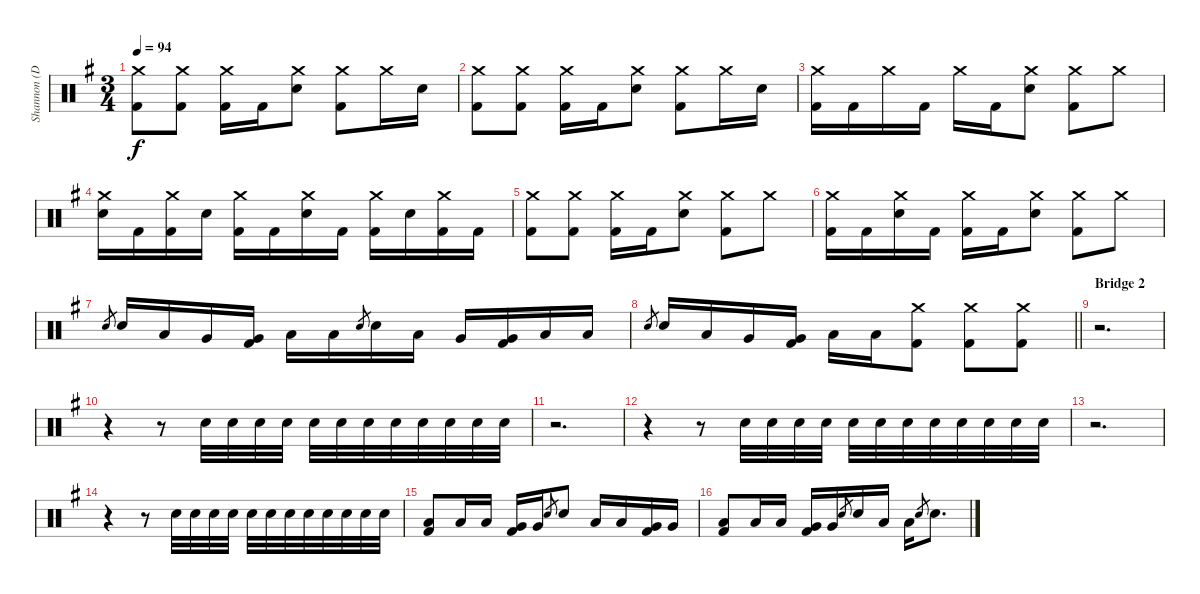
\track ("Shannon (Drums)" "Shannon (D") {instrument percussion}
\staff {score}
\articulation defaults
\ts (3 4)
\tempo 94
\clef neutral
\ks g
("Crash medium (hit)" "Kick (hit) 2").8{dy f} ("Crash medium (hit)" "Kick (hit) 2").8 ("Crash medium (hit)" "Kick (hit) 2").16 "Kick (hit) 2".16 ("Crash medium (hit)" "Electric Snare (hit)").8 ("Crash medium (hit)" "Kick (hit) 2").8 "Crash medium (hit)".16 "Electric Snare (hit)".16 |
("Crash medium (hit)" "Kick (hit) 2").8 ("Crash medium (hit)" "Kick (hit) 2").8 ("Crash medium (hit)" "Kick (hit) 2").16 "Kick (hit) 2".16 ("Crash medium (hit)" "Electric Snare (hit)").8 ("Crash medium (hit)" "Kick (hit) 2").8 "Crash medium (hit)".16 "Electric Snare (hit)".16 |
("Crash medium (hit)" "Kick (hit) 2").16 "Kick (hit) 2".16 "Crash medium (hit)".16 "Kick (hit) 2".16 "Crash medium (hit)".16 "Kick (hit) 2".16 ("Crash medium (hit)" "Electric Snare (hit)").8 ("Crash medium (hit)" "Kick (hit) 2").8 "Crash medium (hit)".8 |
("Crash medium (hit)" "Electric Snare (hit)").16 "Kick (hit) 2".16 ("Crash medium (hit)" "Kick (hit) 2").16 "Electric Snare (hit)".16 ("Crash medium (hit)" "Kick (hit) 2").16 "Kick (hit) 2".16 ("Crash medium (hit)" "Electric Snare (hit)").16 "Kick (hit) 2".16 ("Crash medium (hit)" "Kick (hit) 2").16 "Electric Snare (hit)".16 ("Crash medium (hit)" "Kick (hit) 2").16 "Kick (hit) 2".16 |
("Crash medium (hit)" "Kick (hit) 2").8 ("Crash medium (hit)" "Kick (hit) 2").8 ("Crash medium (hit)" "Kick (hit) 2").16 "Kick (hit) 2".16 ("Crash medium (hit)" "Electric Snare (hit)").8 ("Crash medium (hit)" "Kick (hit) 2").8 "Crash medium (hit)".8 |
("Crash medium (hit)" "Kick (hit) 2").16 "Kick (hit) 2".16 ("Crash medium (hit)" "Electric Snare (hit)").16 "Kick (hit) 2".16 ("Crash medium (hit)" "Kick (hit) 2").16 "Kick (hit) 2".16 ("Crash medium (hit)" "Electric Snare (hit)").8 ("Crash medium (hit)" "Kick (hit) 2").8 "Crash medium (hit)".8 |
"Electric Snare (hit)".8{gr} "Electric Snare (hit)".16 "Low Floor Tom (hit)".16 "Very Low Tom (hit)".16 ("Very Low Tom (hit)" "Kick (hit) 2").16 "Low Floor Tom (hit)".16 "Low Floor Tom (hit)".16 "Electric Snare (hit)".8{gr} "Electric Snare (hit)".16 "Low Floor Tom (hit)".16 "Very Low Tom (hit)".16 ("Very Low Tom (hit)" "Kick (hit) 2").16 "Low Floor Tom (hit)".16 "Low Floor Tom (hit)".16 |
\barLineRight lightlight "Electric Snare (hit)".8{gr} "Electric Snare (hit)".16 "Low Floor Tom (hit)".16 "Very Low Tom (hit)".16
("Very Low Tom (hit)" "Kick (hit) 2").16 "Low Floor Tom (hit)".16 "Low Floor Tom (hit)".16 ("Crash medium (hit)" "Kick (hit) 2").8 ("Crash medium (hit)" "Kick (hit) 2").8 ("Crash medium (hit)" "Kick (hit) 2").8 |
\section ("" "Bridge 2")
r.2{d} |
r.4 r.8 "Electric Snare (hit)".32 "Electric Snare (hit)".32 "Electric Snare (hit)".32 "Electric Snare (hit)".32 "Electric Snare (hit)".32 "Electric Snare (hit)".32 "Electric Snare (hit)".32 "Electric Snare (hit)".32 "Electric Snare (hit)".32 "Electric Snare (hit)".32 "Electric Snare (hit)".32 "Electric Snare (hit)".32 |
r.2{d} |
r.4 r.8 "Electric Snare (hit)".32 "Electric Snare (hit)".32 "Electric Snare (hit)".32 "Electric Snare (hit)".32 "Electric Snare (hit)".32 "Electric Snare (hit)".32 "Electric Snare (hit)".32 "Electric Snare (hit)".32 "Electric Snare (hit)".32 "Electric Snare (hit)".32 "Electric Snare (hit)".32 "Electric Snare (hit)".32 |
r.2{d} |
r.4 r.8 "Electric Snare (hit)".32 "Electric Snare (hit)".32 "Electric Snare (hit)".32 "Electric Snare (hit)".32 "Electric Snare (hit)".32 "Electric Snare (hit)".32 "Electric Snare (hit)".32 "Electric Snare (hit)".32 "Electric Snare (hit)".32 "Electric Snare (hit)".32 "Electric Snare (hit)".32 "Electric Snare (hit)".32 |
("Low Floor Tom (hit)" "Kick (hit) 2").8 "Low Tom (hit)".16 "Low Tom (hit)".16 ("Very Low Tom (hit)" "Kick (hit) 2").16 "Very Low Tom (hit)".16 "Electric Snare (hit)".8{gr} "Electric Snare (hit)".8 "Low Tom (hit)".16 "Low Tom (hit)".16 ("Very Low Tom (hit)" "Kick (hit) 2").16 "Very Low Tom (hit)".16 |
("Low Floor Tom (hit)" "Kick (hit) 2").8 "Low Tom (hit)".16 "Low Tom (hit)".16 ("Very Low Tom (hit)" "Kick (hit) 2").16 "Very Low Tom (hit)".16 "Electric Snare (hit)".8{gr} "Electric Snare (hit)".16 "Low Tom (hit)".16 "Low Tom (hit)".16 "Electric Snare (hit)".8{gr} "Electric Snare (hit)".8{d}
